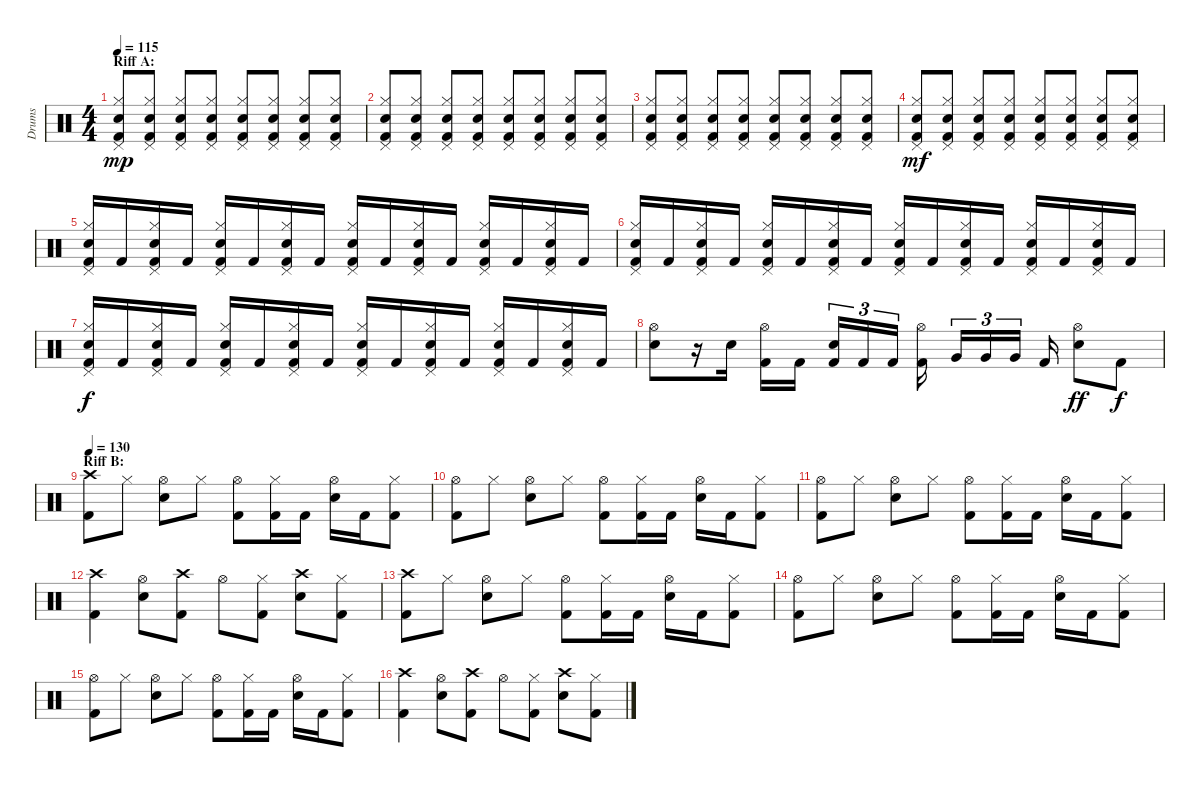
\track ("Drums" "Drums") {instrument percussion}
\staff {score}
\articulation defaults
\ts (4 4)
\section ("" "Riff A:")
\tempo 115
\clef neutral
\ks c
("Pedal Hi-Hat (hit)" "Hi-Hat (closed)" "Electric Snare (hit)" "Kick (hit) 2").8{dy mp} ("Pedal Hi-Hat (hit)" "Hi-Hat (closed)" "Electric Snare (hit)" "Kick (hit) 2").8 ("Pedal Hi-Hat (hit)" "Hi-Hat (closed)" "Electric Snare (hit)" "Kick (hit) 2").8 ("Pedal Hi-Hat (hit)" "Hi-Hat (closed)" "Electric Snare (hit)" "Kick (hit) 2").8 ("Pedal Hi-Hat (hit)" "Hi-Hat (closed)" "Electric Snare (hit)" "Kick (hit) 2").8 ("Pedal Hi-Hat (hit)" "Hi-Hat (closed)" "Electric Snare (hit)" "Kick (hit) 2").8 ("Pedal Hi-Hat (hit)" "Hi-Hat (closed)" "Electric Snare (hit)" "Kick (hit) 2").8 ("Pedal Hi-Hat (hit)" "Hi-Hat (closed)" "Electric Snare (hit)" "Kick (hit) 2").8 |
("Pedal Hi-Hat (hit)" "Hi-Hat (closed)" "Electric Snare (hit)" "Kick (hit) 2").8 ("Pedal Hi-Hat (hit)" "Hi-Hat (closed)" "Electric Snare (hit)" "Kick (hit) 2").8 ("Pedal Hi-Hat (hit)" "Hi-Hat (closed)" "Electric Snare (hit)" "Kick (hit) 2").8 ("Pedal Hi-Hat (hit)" "Hi-Hat (closed)" "Electric Snare (hit)" "Kick (hit) 2").8 ("Pedal Hi-Hat (hit)" "Hi-Hat (closed)" "Electric Snare (hit)" "Kick (hit) 2").8 ("Pedal Hi-Hat (hit)" "Hi-Hat (closed)" "Electric Snare (hit)" "Kick (hit) 2").8 ("Pedal Hi-Hat (hit)" "Hi-Hat (closed)" "Electric Snare (hit)" "Kick (hit) 2").8 ("Pedal Hi-Hat (hit)" "Hi-Hat (closed)" "Electric Snare (hit)" "Kick (hit) 2").8 |
("Pedal Hi-Hat (hit)" "Hi-Hat (closed)" "Electric Snare (hit)" "Kick (hit) 2").8 ("Pedal Hi-Hat (hit)" "Hi-Hat (closed)" "Electric Snare (hit)" "Kick (hit) 2").8 ("Pedal Hi-Hat (hit)" "Hi-Hat (closed)" "Electric Snare (hit)" "Kick (hit) 2").8 ("Pedal Hi-Hat (hit)" "Hi-Hat (closed)" "Electric Snare (hit)" "Kick (hit) 2").8 ("Pedal Hi-Hat (hit)" "Hi-Hat (closed)" "Electric Snare (hit)" "Kick (hit) 2").8 ("Pedal Hi-Hat (hit)" "Hi-Hat (closed)" "Electric Snare (hit)" "Kick (hit) 2").8 ("Pedal Hi-Hat (hit)" "Hi-Hat (closed)" "Electric Snare (hit)" "Kick (hit) 2").8 ("Pedal Hi-Hat (hit)" "Hi-Hat (closed)" "Electric Snare (hit)" "Kick (hit) 2").8 |
("Pedal Hi-Hat (hit)" "Hi-Hat (closed)" "Electric Snare (hit)" "Kick (hit) 2").8{dy mf} ("Pedal Hi-Hat (hit)" "Hi-Hat (closed)" "Electric Snare (hit)" "Kick (hit) 2").8 ("Pedal Hi-Hat (hit)" "Hi-Hat (closed)" "Electric Snare (hit)" "Kick (hit) 2").8 ("Pedal Hi-Hat (hit)" "Hi-Hat (closed)" "Electric Snare (hit)" "Kick (hit) 2").8 ("Pedal Hi-Hat (hit)" "Hi-Hat (closed)" "Electric Snare (hit)" "Kick (hit) 2").8 ("Pedal Hi-Hat (hit)" "Hi-Hat (closed)" "Electric Snare (hit)" "Kick (hit) 2").8 ("Pedal Hi-Hat (hit)" "Hi-Hat (closed)" "Electric Snare (hit)" "Kick (hit) 2").8 ("Pedal Hi-Hat (hit)" "Hi-Hat (closed)" "Electric Snare (hit)" "Kick (hit) 2").8 |
("Pedal Hi-Hat (hit)" "Hi-Hat (closed)" "Electric Snare (hit)" "Kick (hit) 2").16 "Kick (hit) 2".16 ("Pedal Hi-Hat (hit)" "Hi-Hat (closed)" "Electric Snare (hit)" "Kick (hit) 2").16 "Kick (hit) 2".16 ("Pedal Hi-Hat (hit)" "Hi-Hat (closed)" "Electric Snare (hit)" "Kick (hit) 2").16 "Kick (hit) 2".16 ("Pedal Hi-Hat (hit)" "Hi-Hat (closed)" "Electric Snare (hit)" "Kick (hit) 2").16 "Kick (hit) 2".16 ("Pedal Hi-Hat (hit)" "Hi-Hat (closed)" "Electric Snare (hit)" "Kick (hit) 2").16 "Kick (hit) 2".16 ("Pedal Hi-Hat (hit)" "Hi-Hat (closed)" "Electric Snare (hit)" "Kick (hit) 2").16 "Kick (hit) 2".16 ("Pedal Hi-Hat (hit)" "Hi-Hat (closed)" "Electric Snare (hit)" "Kick (hit) 2").16 "Kick (hit) 2".16 ("Pedal Hi-Hat (hit)" "Hi-Hat (closed)" "Electric Snare (hit)" "Kick (hit) 2").16 "Kick (hit) 2".16 |
("Pedal Hi-Hat (hit)" "Hi-Hat (closed)" "Electric Snare (hit)" "Kick (hit) 2").16 "Kick (hit) 2".16 ("Pedal Hi-Hat (hit)" "Hi-Hat (closed)" "Electric Snare (hit)" "Kick (hit) 2").16 "Kick (hit) 2".16 ("Pedal Hi-Hat (hit)" "Hi-Hat (closed)" "Electric Snare (hit)" "Kick (hit) 2").16 "Kick (hit) 2".16 ("Pedal Hi-Hat (hit)" "Hi-Hat (closed)" "Electric Snare (hit)" "Kick (hit) 2").16 "Kick (hit) 2".16 ("Pedal Hi-Hat (hit)" "Hi-Hat (closed)" "Electric Snare (hit)" "Kick (hit) 2").16 "Kick (hit) 2".16 ("Pedal Hi-Hat (hit)" "Hi-Hat (closed)" "Electric Snare (hit)" "Kick (hit) 2").16 "Kick (hit) 2".16 ("Pedal Hi-Hat (hit)" "Hi-Hat (closed)" "Electric Snare (hit)" "Kick (hit) 2").16 "Kick (hit) 2".16 ("Pedal Hi-Hat (hit)" "Hi-Hat (closed)" "Electric Snare (hit)" "Kick (hit) 2").16 "Kick (hit) 2".16 |
("Pedal Hi-Hat (hit)" "Hi-Hat (closed)" "Electric Snare (hit)" "Kick (hit) 2").16{dy f} "Kick (hit) 2".16 ("Pedal Hi-Hat (hit)" "Hi-Hat (closed)" "Electric Snare (hit)" "Kick (hit) 2").16 "Kick (hit) 2".16 ("Pedal Hi-Hat (hit)" "Hi-Hat (closed)" "Electric Snare (hit)" "Kick (hit) 2").16 "Kick (hit) 2".16 ("Pedal Hi-Hat (hit)" "Hi-Hat (closed)" "Electric Snare (hit)" "Kick (hit) 2").16 "Kick (hit) 2".16 ("Pedal Hi-Hat (hit)" "Hi-Hat (closed)" "Electric Snare (hit)" "Kick (hit) 2").16 "Kick (hit) 2".16 ("Pedal Hi-Hat (hit)" "Hi-Hat (closed)" "Electric Snare (hit)" "Kick (hit) 2").16 "Kick (hit) 2".16 ("Pedal Hi-Hat (hit)" "Hi-Hat (closed)" "Electric Snare (hit)" "Kick (hit) 2").16 "Kick (hit) 2".16 ("Pedal Hi-Hat (hit)" "Hi-Hat (closed)" "Electric Snare (hit)" "Kick (hit) 2").16 "Kick (hit) 2".16 |
("Hi-Hat (open)" "Electric Snare (hit)").8 r.16 "Electric Snare (hit)".16 ("Hi-Hat (open)" "Kick (hit) 2").16 "Kick (hit) 2".16 ("Electric Snare (hit)" "Kick (hit) 2").16{tu (3 2)} "Kick (hit) 2".16{tu (3 2)} "Kick (hit) 2".16{tu (3 2)} ("Hi-Hat (open)" "Kick (hit) 2").16 "Very Low Tom (hit)".16{tu (3 2)} "Very Low Tom (hit)".16{tu (3 2)} "Very Low Tom (hit)".16{tu (3 2)} "Kick (hit) 2".16 ("Hi-Hat (open)" "Electric Snare (hit)").8{dy ff} "Kick (hit) 2".8{dy f} |
\section ("" "Riff B:")
\tempo 130
("Crash high (hit)" "Kick (hit) 2").8 "Hi-Hat (closed)".8 ("Hi-Hat (open)" "Electric Snare (hit)").8 "Hi-Hat (closed)".8 ("Hi-Hat (open)" "Kick (hit) 2").8 ("Hi-Hat (closed)" "Kick (hit) 2").16 "Kick (hit) 2".16 ("Hi-Hat (open)" "Electric Snare (hit)").16 "Kick (hit) 2".16 ("Hi-Hat (closed)" "Kick (hit) 2").8 |
("Hi-Hat (open)" "Kick (hit) 2").8 "Hi-Hat (closed)".8 ("Hi-Hat (open)" "Electric Snare (hit)").8 "Hi-Hat (closed)".8 ("Hi-Hat (open)" "Kick (hit) 2").8 ("Hi-Hat (closed)" "Kick (hit) 2").16 "Kick (hit) 2".16 ("Hi-Hat (open)" "Electric Snare (hit)").16 "Kick (hit) 2".16 ("Hi-Hat (closed)" "Kick (hit) 2").8 |
("Hi-Hat (open)" "Kick (hit) 2").8 "Hi-Hat (closed)".8 ("Hi-Hat (open)" "Electric Snare (hit)").8 "Hi-Hat (closed)".8 ("Hi-Hat (open)" "Kick (hit) 2").8 ("Hi-Hat (closed)" "Kick (hit) 2").16 "Kick (hit) 2".16 ("Hi-Hat (open)" "Electric Snare (hit)").16 "Kick (hit) 2".16 ("Hi-Hat (closed)" "Kick (hit) 2").8 |
("Crash high (hit)" "Kick (hit) 2").4 ("Hi-Hat (open)" "Electric Snare (hit)").8 ("Crash high (hit)" "Kick (hit) 2").8 "Hi-Hat (open)".8 ("Hi-Hat (closed)" "Kick (hit) 2").8 ("Crash high (hit)" "Electric Snare (hit)").8 ("Hi-Hat (closed)" "Kick (hit) 2").8 |
("Crash high (hit)" "Kick (hit) 2").8 "Hi-Hat (closed)".8 ("Hi-Hat (open)" "Electric Snare (hit)").8 "Hi-Hat (closed)".8 ("Hi-Hat (open)" "Kick (hit) 2").8 ("Hi-Hat (closed)" "Kick (hit) 2").16 "Kick (hit) 2".16 ("Hi-Hat (open)" "Electric Snare (hit)").16 "Kick (hit) 2".16 ("Hi-Hat (closed)" "Kick (hit) 2").8 |
("Hi-Hat (open)" "Kick (hit) 2").8 "Hi-Hat (closed)".8 ("Hi-Hat (open)" "Electric Snare (hit)").8 "Hi-Hat (closed)".8 ("Hi-Hat (open)" "Kick (hit) 2").8 ("Hi-Hat (closed)" "Kick (hit) 2").16 "Kick (hit) 2".16 ("Hi-Hat (open)" "Electric Snare (hit)").16 "Kick (hit) 2".16 ("Hi-Hat (closed)" "Kick (hit) 2").8 |
("Hi-Hat (open)" "Kick (hit) 2").8 "Hi-Hat (closed)".8 ("Hi-Hat (open)" "Electric Snare (hit)").8 "Hi-Hat (closed)".8 ("Hi-Hat (open)" "Kick (hit) 2").8 ("Hi-Hat (closed)" "Kick (hit) 2").16 "Kick (hit) 2".16 ("Hi-Hat (open)" "Electric Snare (hit)").16 "Kick (hit) 2".16 ("Hi-Hat (closed)" "Kick (hit) 2").8 |
("Crash high (hit)" "Kick (hit) 2").4 ("Hi-Hat (open)" "Electric Snare (hit)").8 ("Crash high (hit)" "Kick (hit) 2").8 "Hi-Hat (open)".8 ("Hi-Hat (closed)" "Kick (hit) 2").8 ("Crash high (hit)" "Electric Snare (hit)").8 ("Hi-Hat (closed)" "Kick (hit) 2").8
